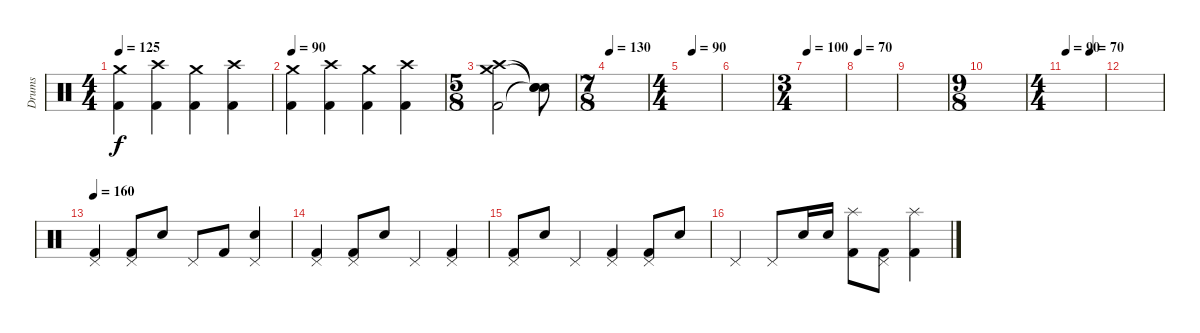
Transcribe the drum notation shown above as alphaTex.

\track ("Drums" "Drums") {instrument percussion}
\staff {score}
\articulation defaults
\ts (4 4)
\tempo 125
\clef neutral
\ks c
("Crash medium (hit)" "Kick (hit) 2").4{dy f} ("Crash high (hit)" "Kick (hit) 2").4 ("Crash medium (hit)" "Kick (hit) 2").4 ("Crash high (hit)" "Kick (hit) 2").4 |
\tempo 90
("Crash medium (hit)" "Kick (hit) 2").4 ("Crash high (hit)" "Kick (hit) 2").4 ("Crash medium (hit)" "Kick (hit) 2").4 ("Crash high (hit)" "Kick (hit) 2").4 |
\ts (5 8)
("Crash medium (hit)" "Crash high (hit)" "Kick (hit) 2").2 ("Snare (hit)"{t} "Snare (hit)"{t} "Snare (hit)"{t}).8 |
\ts (7 8)
\tempo 130
|
\ts (4 4)
\tempo (90 0.25)
|
|
\ts (3 4)
\tempo 100
|
\tempo 70
|
|
\ts (9 8)
|
\ts (4 4)
\tempo 90
\tempo (70 0.625)
|
|
\tempo 160
("Pedal Hi-Hat (hit)" "Kick (hit) 2").4 ("Pedal Hi-Hat (hit)" "Kick (hit) 2").8 "Snare (hit) 2".8 "Pedal Hi-Hat (hit)".8 "Kick (hit) 2".8 ("Pedal Hi-Hat (hit)" "Snare (hit) 2").4 |
("Pedal Hi-Hat (hit)" "Kick (hit) 2").4 ("Pedal Hi-Hat (hit)" "Kick (hit) 2").8 "Snare (hit) 2".8 "Pedal Hi-Hat (hit)".4 ("Pedal Hi-Hat (hit)" "Kick (hit) 2").4 |
("Pedal Hi-Hat (hit)" "Kick (hit) 2").8 "Snare (hit) 2".8 "Pedal Hi-Hat (hit)".4 ("Pedal Hi-Hat (hit)" "Kick (hit) 2").4 ("Pedal Hi-Hat (hit)" "Kick (hit) 2").8 "Snare (hit) 2".8 |
"Pedal Hi-Hat (hit)".4 "Pedal Hi-Hat (hit)".8 "Snare (hit) 2".16 "Snare (hit) 2".16 ("Splash (hit)" "Kick (hit) 2").8 ("Pedal Hi-Hat (hit)" "Kick (hit) 2").8 ("Splash (hit)" "Kick (hit) 2").4
